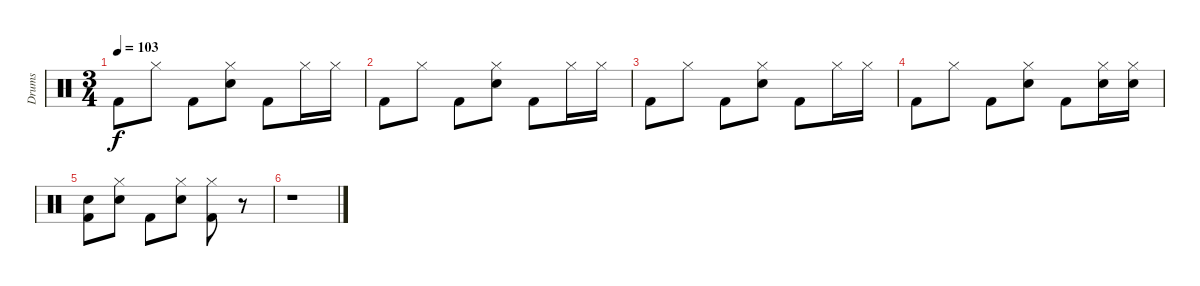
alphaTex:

\track ("Drums" "Drums") {instrument percussion}
\staff {score}
\articulation defaults
\ts (3 4)
\tempo 103
\clef neutral
\ks c "Kick (hit) 2".8{dy f} "Hi-Hat (closed)".8 "Kick (hit) 2".8
("Hi-Hat (closed)" "Snare (hit) 2").8 "Kick (hit) 2".8 "Hi-Hat (closed)".16 "Hi-Hat (closed)".16 |
"Kick (hit) 2".8 "Hi-Hat (closed)".8 "Kick (hit) 2".8 ("Hi-Hat (closed)" "Snare (hit) 2").8 "Kick (hit) 2".8 "Hi-Hat (closed)".16 "Hi-Hat (closed)".16 |
"Kick (hit) 2".8 "Hi-Hat (closed)".8 "Kick (hit) 2".8 ("Hi-Hat (closed)" "Snare (hit) 2").8 "Kick (hit) 2".8 "Hi-Hat (closed)".16 "Hi-Hat (closed)".16 |
"Kick (hit) 2".8 "Hi-Hat (closed)".8 "Kick (hit) 2".8 ("Hi-Hat (closed)" "Snare (hit) 2").8 "Kick (hit) 2".8 ("Hi-Hat (closed)" "Snare (hit) 2").16 ("Hi-Hat (closed)" "Snare (hit) 2").16 |
("Snare (hit) 2" "Kick (hit) 2").8 ("Hi-Hat (closed)" "Snare (hit) 2").8 "Kick (hit) 2".8 ("Hi-Hat (closed)" "Snare (hit) 2").8 ("Hi-Hat (closed)" "Kick (hit) 2").8 r.8 |
r.1
